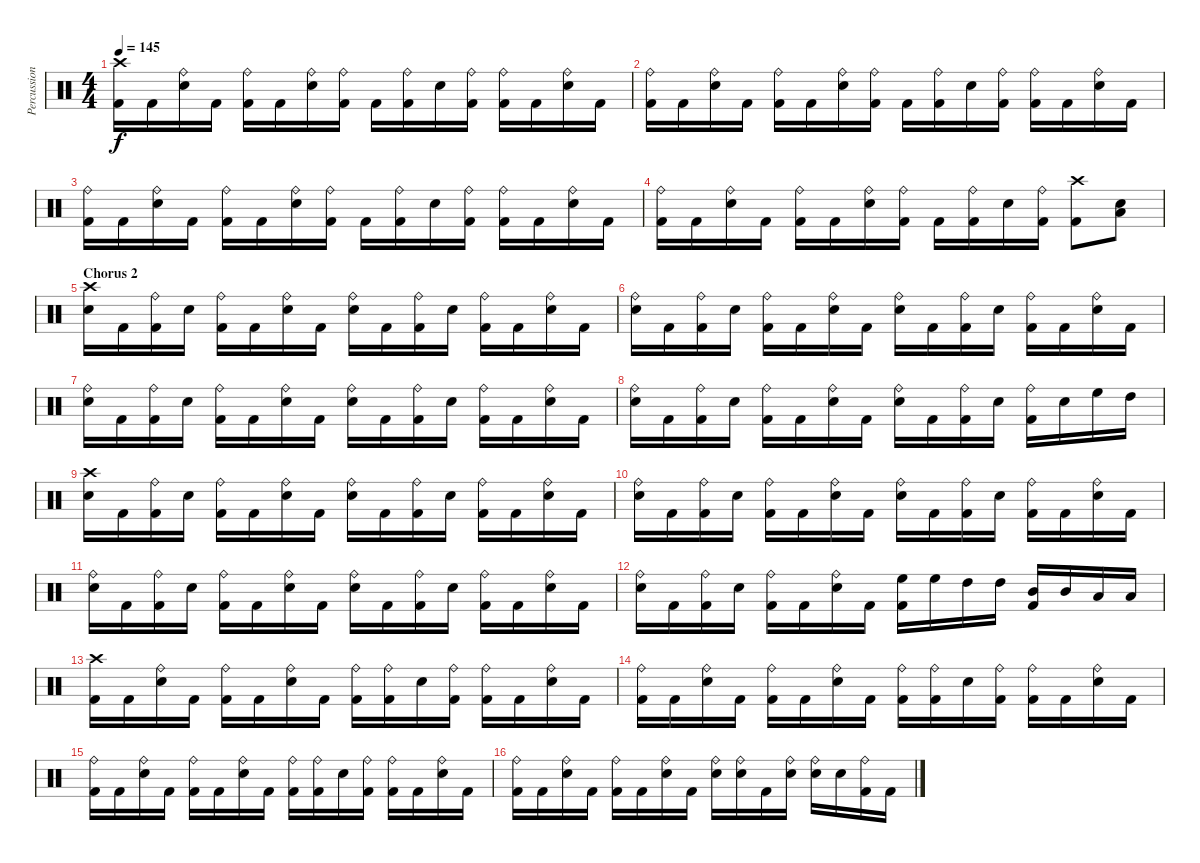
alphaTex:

\track ("Percussion" "Percussion") {instrument percussion}
\staff {score}
\articulation defaults
\ts (4 4)
\tempo 145
\clef neutral
\ks c
("Kick (hit) 2" "Crash high (hit)").16{dy f} "Kick (hit) 2".16 ("Electric Snare (hit)" "Ride (bell)").16 "Kick (hit) 2".16 ("Kick (hit) 2" "Ride (bell)").16 "Kick (hit) 2".16 ("Electric Snare (hit)" "Ride (bell)").16 ("Kick (hit) 2" "Ride (bell)").16 "Kick (hit) 2".16 ("Kick (hit) 2" "Ride (bell)").16 "Electric Snare (hit)".16 ("Kick (hit) 2" "Ride (bell)").16 ("Kick (hit) 2" "Ride (bell)").16 "Kick (hit) 2".16 ("Electric Snare (hit)" "Ride (bell)").16 "Kick (hit) 2".16 |
("Kick (hit) 2" "Ride (bell)").16 "Kick (hit) 2".16 ("Electric Snare (hit)" "Ride (bell)").16 "Kick (hit) 2".16 ("Kick (hit) 2" "Ride (bell)").16 "Kick (hit) 2".16 ("Electric Snare (hit)" "Ride (bell)").16 ("Kick (hit) 2" "Ride (bell)").16 "Kick (hit) 2".16 ("Kick (hit) 2" "Ride (bell)").16 "Electric Snare (hit)".16 ("Kick (hit) 2" "Ride (bell)").16 ("Kick (hit) 2" "Ride (bell)").16 "Kick (hit) 2".16 ("Electric Snare (hit)" "Ride (bell)").16 "Kick (hit) 2".16 |
("Kick (hit) 2" "Ride (bell)").16 "Kick (hit) 2".16 ("Electric Snare (hit)" "Ride (bell)").16 "Kick (hit) 2".16 ("Kick (hit) 2" "Ride (bell)").16 "Kick (hit) 2".16 ("Electric Snare (hit)" "Ride (bell)").16 ("Kick (hit) 2" "Ride (bell)").16 "Kick (hit) 2".16 ("Kick (hit) 2" "Ride (bell)").16 "Electric Snare (hit)".16 ("Kick (hit) 2" "Ride (bell)").16 ("Kick (hit) 2" "Ride (bell)").16 "Kick (hit) 2".16 ("Electric Snare (hit)" "Ride (bell)").16 "Kick (hit) 2".16 |
("Kick (hit) 2" "Ride (bell)").16 "Kick (hit) 2".16 ("Electric Snare (hit)" "Ride (bell)").16 "Kick (hit) 2".16 ("Kick (hit) 2" "Ride (bell)").16 "Kick (hit) 2".16 ("Electric Snare (hit)" "Ride (bell)").16 ("Kick (hit) 2" "Ride (bell)").16 "Kick (hit) 2".16 ("Kick (hit) 2" "Ride (bell)").16 "Electric Snare (hit)".16 ("Kick (hit) 2" "Ride (bell)").16 ("Kick (hit) 2" "Crash high (hit)").8 ("Electric Snare (hit)" "Low Tom (hit)").8 |
\section ("" "Chorus 2")
("Electric Snare (hit)" "Crash high (hit)").16 "Kick (hit) 2".16 ("Kick (hit) 2" "Ride (bell)").16 "Electric Snare (hit)".16 ("Kick (hit) 2" "Ride (bell)").16 "Kick (hit) 2".16 ("Electric Snare (hit)" "Ride (bell)").16 "Kick (hit) 2".16 ("Electric Snare (hit)" "Ride (bell)").16 "Kick (hit) 2".16 ("Kick (hit) 2" "Ride (bell)").16 "Electric Snare (hit)".16 ("Kick (hit) 2" "Ride (bell)").16 "Kick (hit) 2".16 ("Electric Snare (hit)" "Ride (bell)").16 "Kick (hit) 2".16 |
("Electric Snare (hit)" "Ride (bell)").16 "Kick (hit) 2".16 ("Kick (hit) 2" "Ride (bell)").16 "Electric Snare (hit)".16 ("Kick (hit) 2" "Ride (bell)").16 "Kick (hit) 2".16 ("Electric Snare (hit)" "Ride (bell)").16 "Kick (hit) 2".16 ("Electric Snare (hit)" "Ride (bell)").16 "Kick (hit) 2".16 ("Kick (hit) 2" "Ride (bell)").16 "Electric Snare (hit)".16 ("Kick (hit) 2" "Ride (bell)").16 "Kick (hit) 2".16 ("Electric Snare (hit)" "Ride (bell)").16 "Kick (hit) 2".16 |
("Electric Snare (hit)" "Ride (bell)").16 "Kick (hit) 2".16 ("Kick (hit) 2" "Ride (bell)").16 "Electric Snare (hit)".16 ("Kick (hit) 2" "Ride (bell)").16 "Kick (hit) 2".16 ("Electric Snare (hit)" "Ride (bell)").16 "Kick (hit) 2".16 ("Electric Snare (hit)" "Ride (bell)").16 "Kick (hit) 2".16 ("Kick (hit) 2" "Ride (bell)").16 "Electric Snare (hit)".16 ("Kick (hit) 2" "Ride (bell)").16 "Kick (hit) 2".16 ("Electric Snare (hit)" "Ride (bell)").16 "Kick (hit) 2".16 |
("Electric Snare (hit)" "Ride (bell)").16 "Kick (hit) 2".16 ("Kick (hit) 2" "Ride (bell)").16 "Electric Snare (hit)".16 ("Kick (hit) 2" "Ride (bell)").16 "Kick (hit) 2".16 ("Electric Snare (hit)" "Ride (bell)").16 "Kick (hit) 2".16 ("Electric Snare (hit)" "Ride (bell)").16 "Kick (hit) 2".16 ("Kick (hit) 2" "Ride (bell)").16 "Electric Snare (hit)".16 ("Kick (hit) 2" "Ride (bell)").16 "Electric Snare (hit)".16 "High Floor Tom (hit)".16 "High Tom (hit)".16 |
("Electric Snare (hit)" "Crash high (hit)").16 "Kick (hit) 2".16 ("Kick (hit) 2" "Ride (bell)").16 "Electric Snare (hit)".16 ("Kick (hit) 2" "Ride (bell)").16 "Kick (hit) 2".16 ("Electric Snare (hit)" "Ride (bell)").16 "Kick (hit) 2".16 ("Electric Snare (hit)" "Ride (bell)").16 "Kick (hit) 2".16 ("Kick (hit) 2" "Ride (bell)").16 "Electric Snare (hit)".16 ("Kick (hit) 2" "Ride (bell)").16 "Kick (hit) 2".16 ("Electric Snare (hit)" "Ride (bell)").16 "Kick (hit) 2".16 |
("Electric Snare (hit)" "Ride (bell)").16 "Kick (hit) 2".16 ("Kick (hit) 2" "Ride (bell)").16 "Electric Snare (hit)".16 ("Kick (hit) 2" "Ride (bell)").16 "Kick (hit) 2".16 ("Electric Snare (hit)" "Ride (bell)").16 "Kick (hit) 2".16 ("Electric Snare (hit)" "Ride (bell)").16 "Kick (hit) 2".16 ("Kick (hit) 2" "Ride (bell)").16 "Electric Snare (hit)".16 ("Kick (hit) 2" "Ride (bell)").16 "Kick (hit) 2".16 ("Electric Snare (hit)" "Ride (bell)").16 "Kick (hit) 2".16 |
("Electric Snare (hit)" "Ride (bell)").16 "Kick (hit) 2".16 ("Kick (hit) 2" "Ride (bell)").16 "Electric Snare (hit)".16 ("Kick (hit) 2" "Ride (bell)").16 "Kick (hit) 2".16 ("Electric Snare (hit)" "Ride (bell)").16 "Kick (hit) 2".16 ("Electric Snare (hit)" "Ride (bell)").16 "Kick (hit) 2".16 ("Kick (hit) 2" "Ride (bell)").16 "Electric Snare (hit)".16 ("Kick (hit) 2" "Ride (bell)").16 "Kick (hit) 2".16 ("Electric Snare (hit)" "Ride (bell)").16 "Kick (hit) 2".16 |
("Electric Snare (hit)" "Ride (bell)").16 "Kick (hit) 2".16 ("Kick (hit) 2" "Ride (bell)").16 "Electric Snare (hit)".16 ("Kick (hit) 2" "Ride (bell)").16 "Kick (hit) 2".16 ("Electric Snare (hit)" "Ride (bell)").16 "Kick (hit) 2".16 ("High Floor Tom (hit)" "Kick (hit) 2").16 "High Floor Tom (hit)".16 "High Tom (hit)".16 "High Tom (hit)".16 ("Mid Tom (hit)" "Kick (hit) 2").16 "Mid Tom (hit)".16 "Low Tom (hit)".16 "Low Tom (hit)".16 |
("Kick (hit) 2" "Crash high (hit)").16 "Kick (hit) 2".16 ("Electric Snare (hit)" "Ride (bell)").16 "Kick (hit) 2".16 ("Kick (hit) 2" "Ride (bell)").16 "Kick (hit) 2".16 ("Electric Snare (hit)" "Ride (bell)").16 "Kick (hit) 2".16 ("Kick (hit) 2" "Ride (bell)").16 ("Kick (hit) 2" "Ride (bell)").16 "Electric Snare (hit)".16 ("Kick (hit) 2" "Ride (bell)").16 ("Kick (hit) 2" "Ride (bell)").16 "Kick (hit) 2".16 ("Electric Snare (hit)" "Ride (bell)").16 "Kick (hit) 2".16 |
("Kick (hit) 2" "Ride (bell)").16 "Kick (hit) 2".16 ("Electric Snare (hit)" "Ride (bell)").16 "Kick (hit) 2".16 ("Kick (hit) 2" "Ride (bell)").16 "Kick (hit) 2".16 ("Electric Snare (hit)" "Ride (bell)").16 "Kick (hit) 2".16 ("Kick (hit) 2" "Ride (bell)").16 ("Kick (hit) 2" "Ride (bell)").16 "Electric Snare (hit)".16 ("Kick (hit) 2" "Ride (bell)").16 ("Kick (hit) 2" "Ride (bell)").16 "Kick (hit) 2".16 ("Electric Snare (hit)" "Ride (bell)").16 "Kick (hit) 2".16 |
("Kick (hit) 2" "Ride (bell)").16 "Kick (hit) 2".16 ("Electric Snare (hit)" "Ride (bell)").16 "Kick (hit) 2".16 ("Kick (hit) 2" "Ride (bell)").16 "Kick (hit) 2".16 ("Electric Snare (hit)" "Ride (bell)").16 "Kick (hit) 2".16 ("Kick (hit) 2" "Ride (bell)").16 ("Kick (hit) 2" "Ride (bell)").16 "Electric Snare (hit)".16 ("Kick (hit) 2" "Ride (bell)").16 ("Kick (hit) 2" "Ride (bell)").16 "Kick (hit) 2".16 ("Electric Snare (hit)" "Ride (bell)").16 "Kick (hit) 2".16 |
("Kick (hit) 2" "Ride (bell)").16 "Kick (hit) 2".16 ("Electric Snare (hit)" "Ride (bell)").16 "Kick (hit) 2".16 ("Kick (hit) 2" "Ride (bell)").16 "Kick (hit) 2".16 ("Electric Snare (hit)" "Ride (bell)").16 "Kick (hit) 2".16 ("Electric Snare (hit)" "Ride (bell)").16 ("Electric Snare (hit)" "Ride (bell)").16 "Kick (hit) 2".16 ("Electric Snare (hit)" "Ride (bell)").16 ("Electric Snare (hit)" "Ride (bell)").16 "Electric Snare (hit)".16 ("Kick (hit) 2" "Ride (bell)").16 "Kick (hit) 2".16
